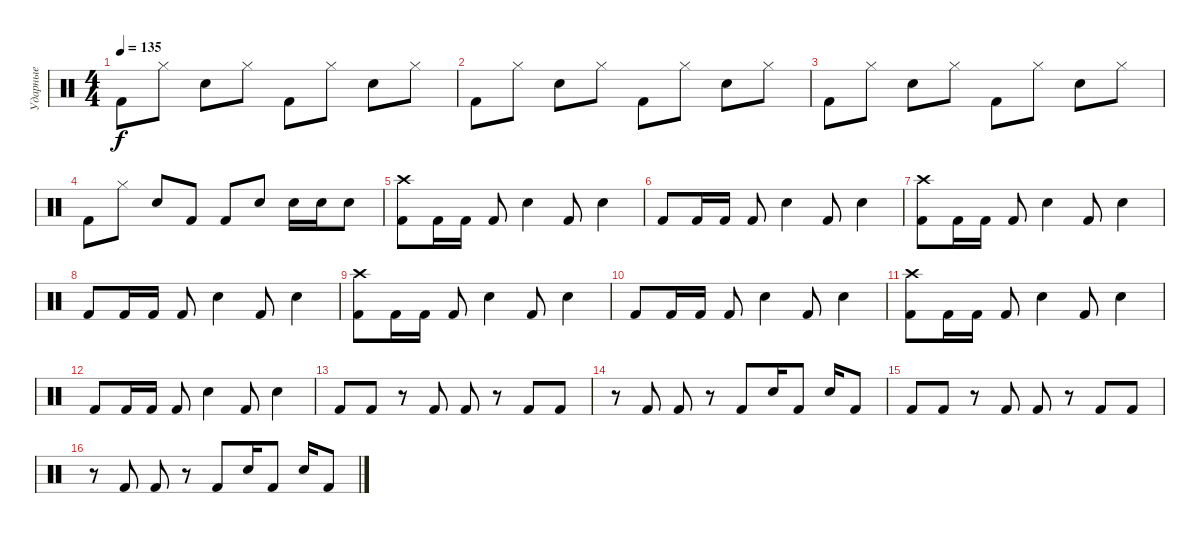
\track ("Ударные" "Ударные") {instrument percussion}
\staff {score}
\articulation defaults
\ts (4 4)
\tempo 135
\clef neutral
\ks c "Kick (hit) 2".8{dy f} "Hi-Hat (closed)".8 "Snare (hit) 2".8 "Hi-Hat (closed)".8 "Kick (hit) 2".8 "Hi-Hat (closed)".8 "Snare (hit) 2".8 "Hi-Hat (closed)".8
|
"Kick (hit) 2".8 "Hi-Hat (closed)".8 "Snare (hit) 2".8 "Hi-Hat (closed)".8 "Kick (hit) 2".8 "Hi-Hat (closed)".8 "Snare (hit) 2".8 "Hi-Hat (closed)".8 |
"Kick (hit) 2".8 "Hi-Hat (closed)".8 "Snare (hit) 2".8 "Hi-Hat (closed)".8 "Kick (hit) 2".8 "Hi-Hat (closed)".8 "Snare (hit) 2".8 "Hi-Hat (closed)".8 |
"Kick (hit) 2".8 "Hi-Hat (closed)".8 "Snare (hit) 2".8 "Kick (hit) 2".8 "Kick (hit) 2".8 "Snare (hit) 2".8 "Electric Snare (hit)".16 "Electric Snare (hit)".16 "Electric Snare (hit)".8 |
("Crash high (hit)" "Kick (hit) 2").8 "Kick (hit) 2".16 "Kick (hit) 2".16 "Kick (hit) 2".8 "Electric Snare (hit)".4 "Kick (hit) 2".8 "Electric Snare (hit)".4 |
"Kick (hit) 2".8 "Kick (hit) 2".16 "Kick (hit) 2".16 "Kick (hit) 2".8 "Electric Snare (hit)".4 "Kick (hit) 2".8 "Electric Snare (hit)".4 |
("Crash high (hit)" "Kick (hit) 2").8 "Kick (hit) 2".16 "Kick (hit) 2".16 "Kick (hit) 2".8 "Electric Snare (hit)".4 "Kick (hit) 2".8 "Electric Snare (hit)".4 |
"Kick (hit) 2".8 "Kick (hit) 2".16 "Kick (hit) 2".16 "Kick (hit) 2".8 "Electric Snare (hit)".4 "Kick (hit) 2".8 "Electric Snare (hit)".4 |
("Crash high (hit)" "Kick (hit) 2").8 "Kick (hit) 2".16 "Kick (hit) 2".16 "Kick (hit) 2".8 "Electric Snare (hit)".4 "Kick (hit) 2".8 "Electric Snare (hit)".4 |
"Kick (hit) 2".8 "Kick (hit) 2".16 "Kick (hit) 2".16 "Kick (hit) 2".8 "Electric Snare (hit)".4 "Kick (hit) 2".8 "Electric Snare (hit)".4 |
("Crash high (hit)" "Kick (hit) 2").8 "Kick (hit) 2".16 "Kick (hit) 2".16 "Kick (hit) 2".8 "Electric Snare (hit)".4 "Kick (hit) 2".8 "Electric Snare (hit)".4 |
"Kick (hit) 2".8 "Kick (hit) 2".16 "Kick (hit) 2".16 "Kick (hit) 2".8 "Electric Snare (hit)".4 "Kick (hit) 2".8 "Electric Snare (hit)".4 |
"Kick (hit) 2".8 "Kick (hit) 2".8 r.8 "Kick (hit) 2".8 "Kick (hit) 2".8 r.8 "Kick (hit) 2".8 "Kick (hit) 2".8 |
r.8 "Kick (hit) 2".8 "Kick (hit) 2".8 r.8 "Kick (hit) 2".8 "Snare (hit) 2".16 "Kick (hit) 2".8 "Electric Snare (hit)".16 "Kick (hit) 2".8 |
"Kick (hit) 2".8 "Kick (hit) 2".8 r.8 "Kick (hit) 2".8 "Kick (hit) 2".8 r.8 "Kick (hit) 2".8 "Kick (hit) 2".8 |
r.8 "Kick (hit) 2".8 "Kick (hit) 2".8 r.8 "Kick (hit) 2".8 "Snare (hit) 2".16 "Kick (hit) 2".8 "Electric Snare (hit)".16 "Kick (hit) 2".8
